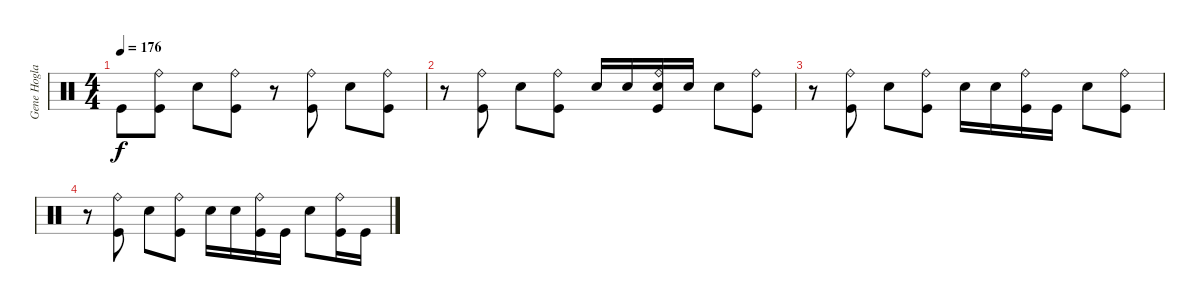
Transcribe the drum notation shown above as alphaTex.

\track ("Gene Hoglan " "Gene Hogla") {instrument percussion}
\staff {score}
\articulation defaults
\ts (4 4)
\tempo 176
\clef neutral
\ks c "Kick (hit)".8{dy f}
("Ride (bell)" "Kick (hit)").8 "Snare (hit) 2".8 ("Ride (bell)" "Kick (hit)").8 r.8 ("Ride (bell)" "Kick (hit)").8 "Snare (hit) 2".8 ("Ride (bell)" "Kick (hit)").8 |
r.8 ("Ride (bell)" "Kick (hit)").8 "Snare (hit) 2".8 ("Ride (bell)" "Kick (hit)").8 "Snare (hit) 2".16 "Snare (hit) 2".16 ("Ride (bell)" "Snare (hit) 2" "Kick (hit)").16 "Snare (hit) 2".16 "Snare (hit) 2".8 ("Ride (bell)" "Kick (hit)").8 |
r.8 ("Ride (bell)" "Kick (hit)").8 "Snare (hit) 2".8 ("Ride (bell)" "Kick (hit)").8 "Snare (hit) 2".16 "Snare (hit) 2".16 ("Ride (bell)" "Kick (hit)").16 "Kick (hit)".16 "Snare (hit) 2".8 ("Ride (bell)" "Kick (hit)").8 |
r.8 ("Ride (bell)" "Kick (hit)").8 "Snare (hit) 2".8 ("Ride (bell)" "Kick (hit)").8 "Snare (hit) 2".16 "Snare (hit) 2".16 ("Ride (bell)" "Kick (hit)").16 "Kick (hit)".16 "Snare (hit) 2".8 ("Ride (bell)" "Kick (hit)").16 "Kick (hit)".16
